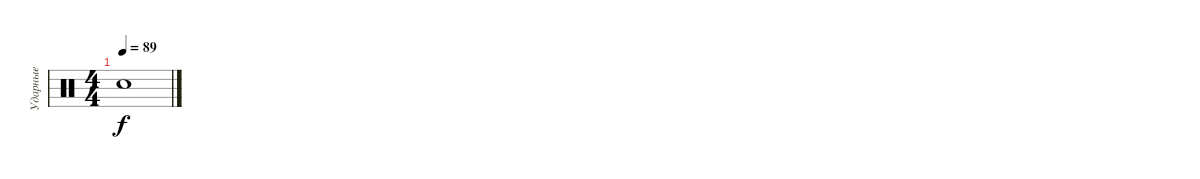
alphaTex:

\track ("Ударные" "Ударные") {instrument percussion}
\staff {score}
\articulation defaults
\ts (4 4)
\tempo 89
\clef neutral
\ks c "Snare (hit)"{t}.1{dy f}
